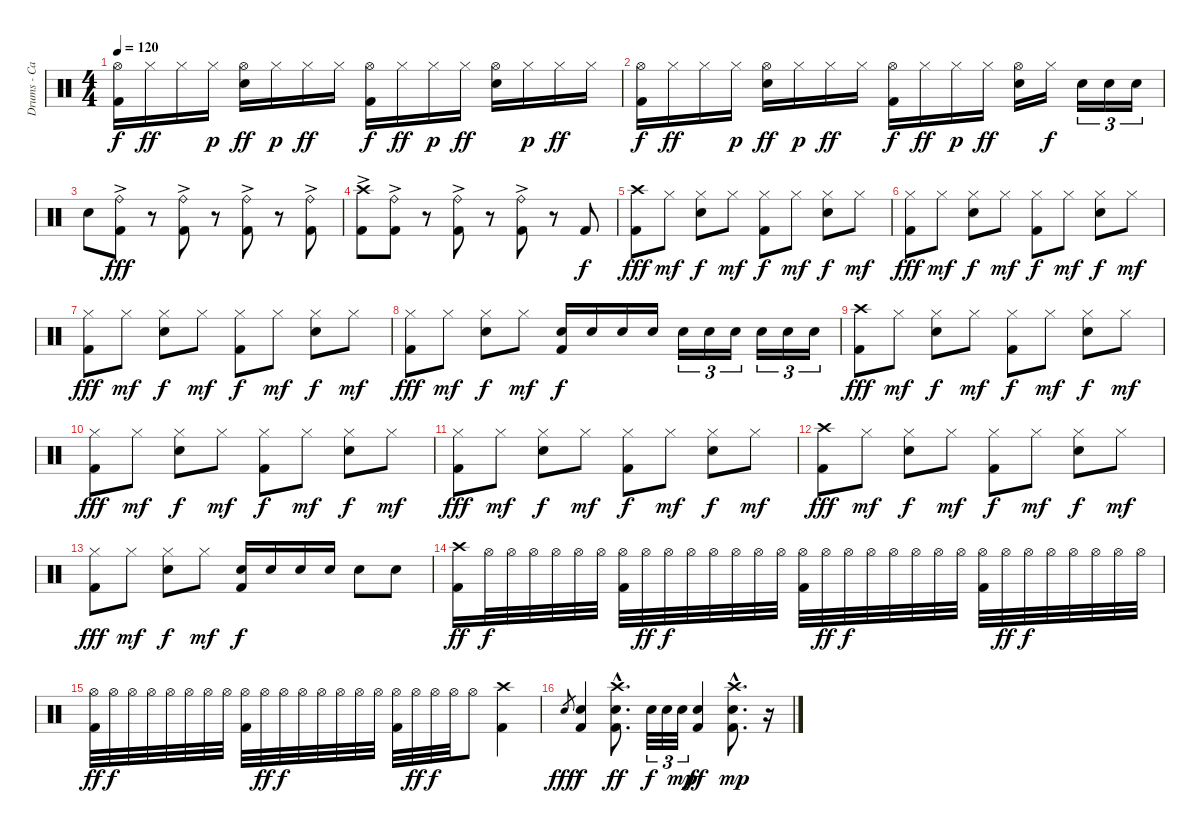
\track ("Drums - Carl Palmer" "Drums - Ca") {instrument percussion}
\staff {score}
\articulation defaults
\ts (4 4)
\tempo 120
\clef neutral
\ks c
("Hi-Hat (open)" "Kick (hit) 2").16{dy f} "Hi-Hat (closed)".16{dy ff} "Hi-Hat (closed)".16 "Hi-Hat (closed)".16{dy p} ("Hi-Hat (open)" "Snare (hit) 2").16{dy ff} "Hi-Hat (closed)".16{dy p} "Hi-Hat (closed)".16{dy ff} "Hi-Hat (closed)".16 ("Hi-Hat (open)" "Kick (hit) 2").16{dy f} "Hi-Hat (closed)".16{dy ff} "Hi-Hat (closed)".16{dy p} "Hi-Hat (closed)".16{dy ff} ("Hi-Hat (open)" "Snare (hit) 2").16 "Hi-Hat (closed)".16{dy p} "Hi-Hat (closed)".16{dy ff} "Hi-Hat (closed)".16 |
("Hi-Hat (open)" "Kick (hit) 2").16{dy f} "Hi-Hat (closed)".16{dy ff} "Hi-Hat (closed)".16 "Hi-Hat (closed)".16{dy p} ("Hi-Hat (open)" "Snare (hit) 2").16{dy ff} "Hi-Hat (closed)".16{dy p} "Hi-Hat (closed)".16{dy ff} "Hi-Hat (closed)".16 ("Hi-Hat (open)" "Kick (hit) 2").16{dy f} "Hi-Hat (closed)".16{dy ff} "Hi-Hat (closed)".16{dy p} "Hi-Hat (closed)".16{dy ff} ("Hi-Hat (open)" "Snare (hit) 2").16 "Hi-Hat (closed)".16{dy f} "Snare (hit) 2".16{tu (3 2)} "Snare (hit) 2".16{tu (3 2)} "Snare (hit) 2".16{tu (3 2)} |
"Snare (hit) 2".8 ("Ride (bell)"{ac} "Kick (hit) 2").8{dy fff} r.8 ("Ride (bell)"{ac} "Kick (hit) 2").8 r.8 ("Ride (bell)"{ac} "Kick (hit) 2").8 r.8 ("Ride (bell)"{ac} "Kick (hit) 2").8 |
("Crash high (hit)"{ac} "Kick (hit) 2").8 ("Ride (bell)"{ac} "Kick (hit) 2").8 r.8 ("Ride (bell)"{ac} "Kick (hit) 2").8 r.8 ("Ride (bell)"{ac} "Kick (hit) 2").8 r.8 "Kick (hit) 2".8{dy f} |
("Crash high (hit)" "Kick (hit) 2").8{dy fff} "Hi-Hat (closed)".8{dy mf} ("Hi-Hat (closed)" "Snare (hit) 2").8{dy f} "Hi-Hat (closed)".8{dy mf} ("Hi-Hat (closed)" "Kick (hit) 2").8{dy f} "Hi-Hat (closed)".8{dy mf} ("Hi-Hat (closed)" "Snare (hit) 2").8{dy f} "Hi-Hat (closed)".8{dy mf} |
("Hi-Hat (closed)" "Kick (hit) 2").8{dy fff} "Hi-Hat (closed)".8{dy mf} ("Hi-Hat (closed)" "Snare (hit) 2").8{dy f} "Hi-Hat (closed)".8{dy mf} ("Hi-Hat (closed)" "Kick (hit) 2").8{dy f} "Hi-Hat (closed)".8{dy mf} ("Hi-Hat (closed)" "Snare (hit) 2").8{dy f} "Hi-Hat (closed)".8{dy mf} |
("Hi-Hat (closed)" "Kick (hit) 2").8{dy fff} "Hi-Hat (closed)".8{dy mf} ("Hi-Hat (closed)" "Snare (hit) 2").8{dy f} "Hi-Hat (closed)".8{dy mf} ("Hi-Hat (closed)" "Kick (hit) 2").8{dy f} "Hi-Hat (closed)".8{dy mf} ("Hi-Hat (closed)" "Snare (hit) 2").8{dy f} "Hi-Hat (closed)".8{dy mf} |
("Hi-Hat (closed)" "Kick (hit) 2").8{dy fff} "Hi-Hat (closed)".8{dy mf} ("Hi-Hat (closed)" "Snare (hit) 2").8{dy f} "Hi-Hat (closed)".8{dy mf} ("Snare (hit) 2" "Kick (hit) 2").16{dy f} "Snare (hit) 2".16 "Snare (hit) 2".16 "Snare (hit) 2".16 "Snare (hit) 2".16{tu (3 2)} "Snare (hit) 2".16{tu (3 2)} "Snare (hit) 2".16{tu (3 2)} "Snare (hit) 2".16{tu (3 2)} "Snare (hit) 2".16{tu (3 2)} "Snare (hit) 2".16{tu (3 2)} |
("Crash high (hit)" "Kick (hit) 2").8{dy fff} "Hi-Hat (closed)".8{dy mf} ("Hi-Hat (closed)" "Snare (hit) 2").8{dy f} "Hi-Hat (closed)".8{dy mf} ("Hi-Hat (closed)" "Kick (hit) 2").8{dy f} "Hi-Hat (closed)".8{dy mf} ("Hi-Hat (closed)" "Snare (hit) 2").8{dy f} "Hi-Hat (closed)".8{dy mf} |
("Hi-Hat (closed)" "Kick (hit) 2").8{dy fff} "Hi-Hat (closed)".8{dy mf} ("Hi-Hat (closed)" "Snare (hit) 2").8{dy f} "Hi-Hat (closed)".8{dy mf} ("Hi-Hat (closed)" "Kick (hit) 2").8{dy f} "Hi-Hat (closed)".8{dy mf} ("Hi-Hat (closed)" "Snare (hit) 2").8{dy f} "Hi-Hat (closed)".8{dy mf} |
("Hi-Hat (closed)" "Kick (hit) 2").8{dy fff} "Hi-Hat (closed)".8{dy mf} ("Hi-Hat (closed)" "Snare (hit) 2").8{dy f} "Hi-Hat (closed)".8{dy mf} ("Hi-Hat (closed)" "Kick (hit) 2").8{dy f} "Hi-Hat (closed)".8{dy mf} ("Hi-Hat (closed)" "Snare (hit) 2").8{dy f} "Hi-Hat (closed)".8{dy mf} |
("Crash high (hit)" "Kick (hit) 2").8{dy fff} "Hi-Hat (closed)".8{dy mf} ("Hi-Hat (closed)" "Snare (hit) 2").8{dy f} "Hi-Hat (closed)".8{dy mf} ("Hi-Hat (closed)" "Kick (hit) 2").8{dy f} "Hi-Hat (closed)".8{dy mf} ("Hi-Hat (closed)" "Snare (hit) 2").8{dy f} "Hi-Hat (closed)".8{dy mf} |
("Hi-Hat (closed)" "Kick (hit) 2").8{dy fff} "Hi-Hat (closed)".8{dy mf} ("Hi-Hat (closed)" "Snare (hit) 2").8{dy f} "Hi-Hat (closed)".8{dy mf} ("Snare (hit) 2" "Kick (hit) 2").16{dy f} "Snare (hit) 2".16 "Snare (hit) 2".16 "Snare (hit) 2".16 "Snare (hit) 2".8 "Snare (hit) 2".8 |
("Crash high (hit)" "Kick (hit) 2").16{dy ff} "Hi-Hat (open)".32{dy f} "Hi-Hat (open)".32 "Hi-Hat (open)".32 "Hi-Hat (open)".32 "Hi-Hat (open)".32 "Hi-Hat (open)".32 ("Hi-Hat (open)" "Kick (hit) 2").32 "Hi-Hat (open)".32{dy ff} "Hi-Hat (open)".32{dy f} "Hi-Hat (open)".32 "Hi-Hat (open)".32 "Hi-Hat (open)".32 "Hi-Hat (open)".32 "Hi-Hat (open)".32 ("Hi-Hat (open)" "Kick (hit) 2").32 "Hi-Hat (open)".32{dy ff} "Hi-Hat (open)".32{dy f} "Hi-Hat (open)".32 "Hi-Hat (open)".32 "Hi-Hat (open)".32 "Hi-Hat (open)".32 "Hi-Hat (open)".32 ("Hi-Hat (open)" "Kick (hit) 2").32 "Hi-Hat (open)".32{dy ff} "Hi-Hat (open)".32{dy f} "Hi-Hat (open)".32 "Hi-Hat (open)".32 "Hi-Hat (open)".32 "Hi-Hat (open)".32 "Hi-Hat (open)".32 |
("Hi-Hat (open)" "Kick (hit) 2").32{dy ff} "Hi-Hat (open)".32{dy f} "Hi-Hat (open)".32 "Hi-Hat (open)".32 "Hi-Hat (open)".32 "Hi-Hat (open)".32 "Hi-Hat (open)".32 "Hi-Hat (open)".32 ("Hi-Hat (open)" "Kick (hit) 2").32 "Hi-Hat (open)".32{dy ff} "Hi-Hat (open)".32{dy f} "Hi-Hat (open)".32 "Hi-Hat (open)".32 "Hi-Hat (open)".32 "Hi-Hat (open)".32 "Hi-Hat (open)".32 ("Hi-Hat (open)" "Kick (hit) 2").32 "Hi-Hat (open)".32{dy ff} "Hi-Hat (open)".32{dy f} "Hi-Hat (open)".32 "Hi-Hat (open)".8 ("Crash high (hit)" "Kick (hit) 2").4 |
"Snare (hit) 2".8{gr dy fff} ("Snare (hit) 2" "Kick (hit) 2").4{dy f} ("Crash high (hit)"{hac} "Snare (hit) 2"{hac} "Kick (hit) 2"{hac}).8{d dy ff} "Snare (hit) 2".32{tu (3 2) dy f} "Snare (hit) 2".32{tu (3 2)} "Snare (hit) 2".32{tu (3 2) dy mp} ("Snare (hit) 2" "Kick (hit) 2").4{dy ff} ("Crash high (hit)"{hac} "Snare (hit) 2"{hac} "Kick (hit) 2"{hac}).8{d dy mp} r.16
